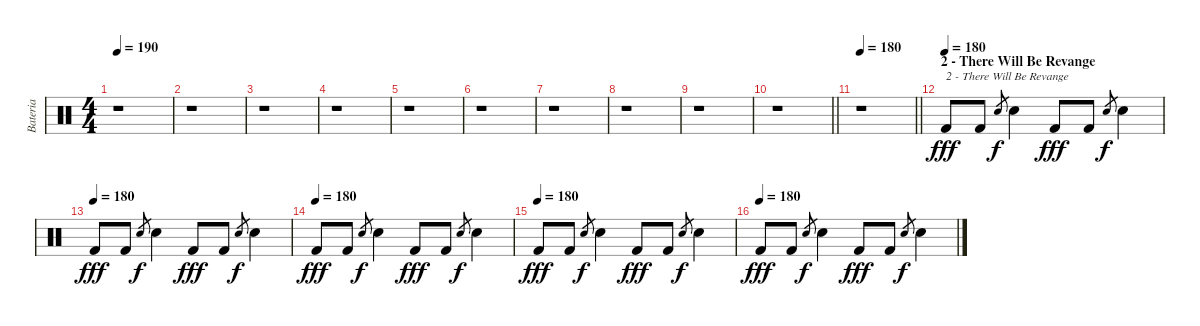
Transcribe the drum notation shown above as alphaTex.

\track ("Bateria" "Bateria") {instrument percussion}
\staff {score}
\articulation defaults
\ts (4 4)
\tempo 190
\clef neutral
\ks c
r.1{dy f} |
r.1 |
r.1 |
r.1 |
r.1 |
r.1 |
r.1 |
r.1 |
r.1 |
\barLineRight lightlight
r.1 |
\tempo 180
\barLineRight lightlight
r.1 |
\section ("" "2 - There Will Be Revange")
\tempo (180)
"Kick (hit) 2".8{txt "2 - There Will Be Revange" dy fff} "Kick (hit) 2".8 "Electric Snare (hit)".8{gr dy f} "Electric Snare (hit)".4 "Kick (hit) 2".8{dy fff} "Kick (hit) 2".8 "Electric Snare (hit)".8{gr dy f} "Electric Snare (hit)".4 |
\tempo (180)
"Kick (hit) 2".8{dy fff} "Kick (hit) 2".8 "Electric Snare (hit)".8{gr dy f} "Electric Snare (hit)".4 "Kick (hit) 2".8{dy fff} "Kick (hit) 2".8 "Electric Snare (hit)".8{gr dy f} "Electric Snare (hit)".4 |
\tempo (180)
"Kick (hit) 2".8{dy fff} "Kick (hit) 2".8 "Electric Snare (hit)".8{gr dy f} "Electric Snare (hit)".4 "Kick (hit) 2".8{dy fff} "Kick (hit) 2".8 "Electric Snare (hit)".8{gr dy f} "Electric Snare (hit)".4 |
\tempo (180)
"Kick (hit) 2".8{dy fff} "Kick (hit) 2".8 "Electric Snare (hit)".8{gr dy f} "Electric Snare (hit)".4 "Kick (hit) 2".8{dy fff} "Kick (hit) 2".8 "Electric Snare (hit)".8{gr dy f} "Electric Snare (hit)".4 |
\tempo (180)
"Kick (hit) 2".8{dy fff} "Kick (hit) 2".8 "Electric Snare (hit)".8{gr dy f} "Electric Snare (hit)".4 "Kick (hit) 2".8{dy fff} "Kick (hit) 2".8 "Electric Snare (hit)".8{gr dy f} "Electric Snare (hit)".4
